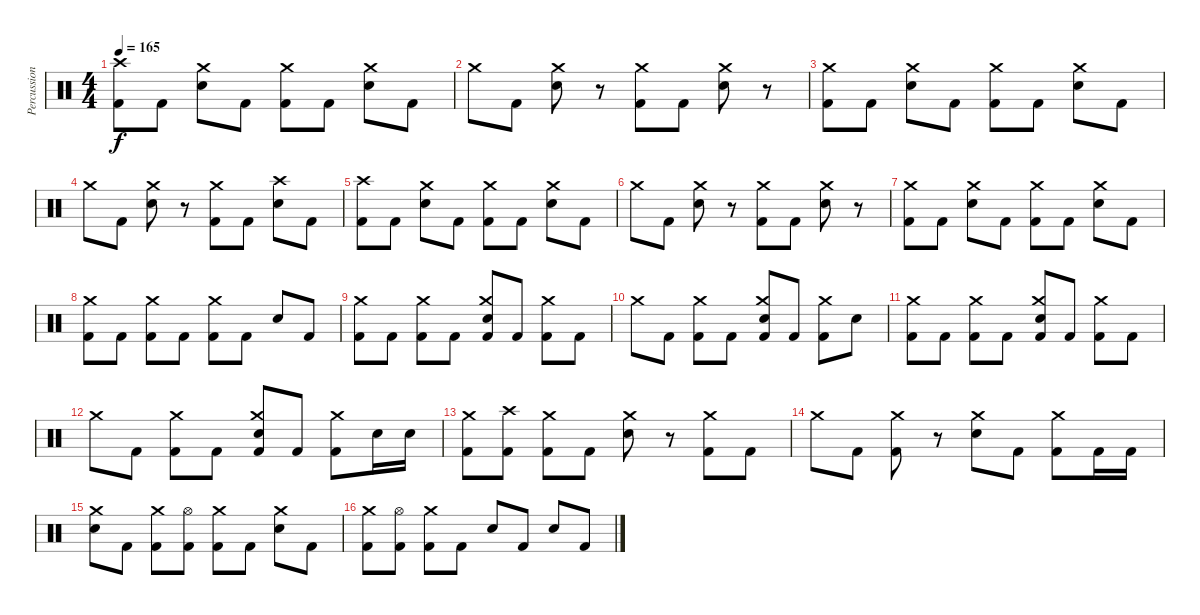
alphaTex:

\track ("Percussion" "Percussion") {instrument percussion}
\staff {score}
\articulation defaults
\ts (4 4)
\tempo 165
\clef neutral
\ks c
("Crash high (hit)" "Kick (hit) 2").8{dy f} "Kick (hit) 2".8 ("Crash medium (hit)" "Snare (hit) 2").8 "Kick (hit) 2".8 ("Crash medium (hit)" "Kick (hit) 2").8 "Kick (hit) 2".8 ("Crash medium (hit)" "Snare (hit) 2").8 "Kick (hit) 2".8 |
"Crash medium (hit)".8 "Kick (hit) 2".8 ("Crash medium (hit)" "Snare (hit) 2").8 r.8 ("Crash medium (hit)" "Kick (hit) 2").8 "Kick (hit) 2".8 ("Crash medium (hit)" "Snare (hit) 2").8 r.8 |
("Crash medium (hit)" "Kick (hit) 2").8 "Kick (hit) 2".8 ("Crash medium (hit)" "Snare (hit) 2").8 "Kick (hit) 2".8 ("Crash medium (hit)" "Kick (hit) 2").8 "Kick (hit) 2".8 ("Crash medium (hit)" "Snare (hit) 2").8 "Kick (hit) 2".8 |
"Crash medium (hit)".8 "Kick (hit) 2".8 ("Crash medium (hit)" "Snare (hit) 2").8 r.8 ("Crash medium (hit)" "Kick (hit) 2").8 "Kick (hit) 2".8 ("Crash high (hit)" "Snare (hit) 2").8 "Kick (hit) 2".8 |
("Crash high (hit)" "Kick (hit) 2").8 "Kick (hit) 2".8 ("Crash medium (hit)" "Snare (hit) 2").8 "Kick (hit) 2".8 ("Crash medium (hit)" "Kick (hit) 2").8 "Kick (hit) 2".8 ("Crash medium (hit)" "Snare (hit) 2").8 "Kick (hit) 2".8 |
"Crash medium (hit)".8 "Kick (hit) 2".8 ("Crash medium (hit)" "Snare (hit) 2").8 r.8 ("Crash medium (hit)" "Kick (hit) 2").8 "Kick (hit) 2".8 ("Crash medium (hit)" "Snare (hit) 2").8 r.8 |
("Crash medium (hit)" "Kick (hit) 2").8 "Kick (hit) 2".8 ("Crash medium (hit)" "Snare (hit) 2").8 "Kick (hit) 2".8 ("Crash medium (hit)" "Kick (hit) 2").8 "Kick (hit) 2".8 ("Crash medium (hit)" "Snare (hit) 2").8 "Kick (hit) 2".8 |
("Crash medium (hit)" "Kick (hit) 2").8 "Kick (hit) 2".8 ("Crash medium (hit)" "Kick (hit) 2").8 "Kick (hit) 2".8 ("Crash medium (hit)" "Kick (hit) 2").8 "Kick (hit) 2".8 "Snare (hit) 2".8 "Kick (hit) 2".8 |
("Crash medium (hit)" "Kick (hit) 2").8 "Kick (hit) 2".8 ("Crash medium (hit)" "Kick (hit) 2").8 "Kick (hit) 2".8 ("Crash medium (hit)" "Snare (hit) 2" "Kick (hit) 2").8 "Kick (hit) 2".8 ("Crash medium (hit)" "Kick (hit) 2").8 "Kick (hit) 2".8 |
"Crash medium (hit)".8 "Kick (hit) 2".8 ("Crash medium (hit)" "Kick (hit) 2").8 "Kick (hit) 2".8 ("Crash medium (hit)" "Snare (hit) 2" "Kick (hit) 2").8 "Kick (hit) 2".8 ("Crash medium (hit)" "Kick (hit) 2").8 "Snare (hit) 2".8 |
("Crash medium (hit)" "Kick (hit) 2").8 "Kick (hit) 2".8 ("Crash medium (hit)" "Kick (hit) 2").8 "Kick (hit) 2".8 ("Crash medium (hit)" "Snare (hit) 2" "Kick (hit) 2").8 "Kick (hit) 2".8 ("Crash medium (hit)" "Kick (hit) 2").8 "Kick (hit) 2".8 |
"Crash medium (hit)".8 "Kick (hit) 2".8 ("Crash medium (hit)" "Kick (hit) 2").8 "Kick (hit) 2".8 ("Crash medium (hit)" "Snare (hit) 2" "Kick (hit) 2").8 "Kick (hit) 2".8 ("Crash medium (hit)" "Kick (hit) 2").8 "Snare (hit) 2".16 "Snare (hit) 2".16 |
("Crash medium (hit)" "Kick (hit) 2").8 ("Crash high (hit)" "Kick (hit) 2").8 ("Crash medium (hit)" "Kick (hit) 2").8 "Kick (hit) 2".8 ("Crash medium (hit)" "Snare (hit) 2").8 r.8 ("Crash medium (hit)" "Kick (hit) 2").8 "Kick (hit) 2".8 |
"Crash medium (hit)".8 "Kick (hit) 2".8 ("Crash medium (hit)" "Kick (hit) 2").8 r.8 ("Crash medium (hit)" "Snare (hit) 2").8 "Kick (hit) 2".8 ("Crash medium (hit)" "Kick (hit) 2").8 "Kick (hit) 2".16 "Kick (hit) 2".16 |
("Crash medium (hit)" "Snare (hit) 2").8 "Kick (hit) 2".8 ("Crash medium (hit)" "Kick (hit) 2").8 ("Hi-Hat (open)" "Kick (hit) 2").8 ("Crash medium (hit)" "Kick (hit) 2").8 "Kick (hit) 2".8 ("Crash medium (hit)" "Snare (hit) 2").8 "Kick (hit) 2".8 |
("Crash medium (hit)" "Kick (hit) 2").8 ("Hi-Hat (open)" "Kick (hit) 2").8 ("Crash medium (hit)" "Kick (hit) 2").8 "Kick (hit) 2".8 "Snare (hit) 2".8 "Kick (hit) 2".8 "Snare (hit) 2".8 "Kick (hit) 2".8
